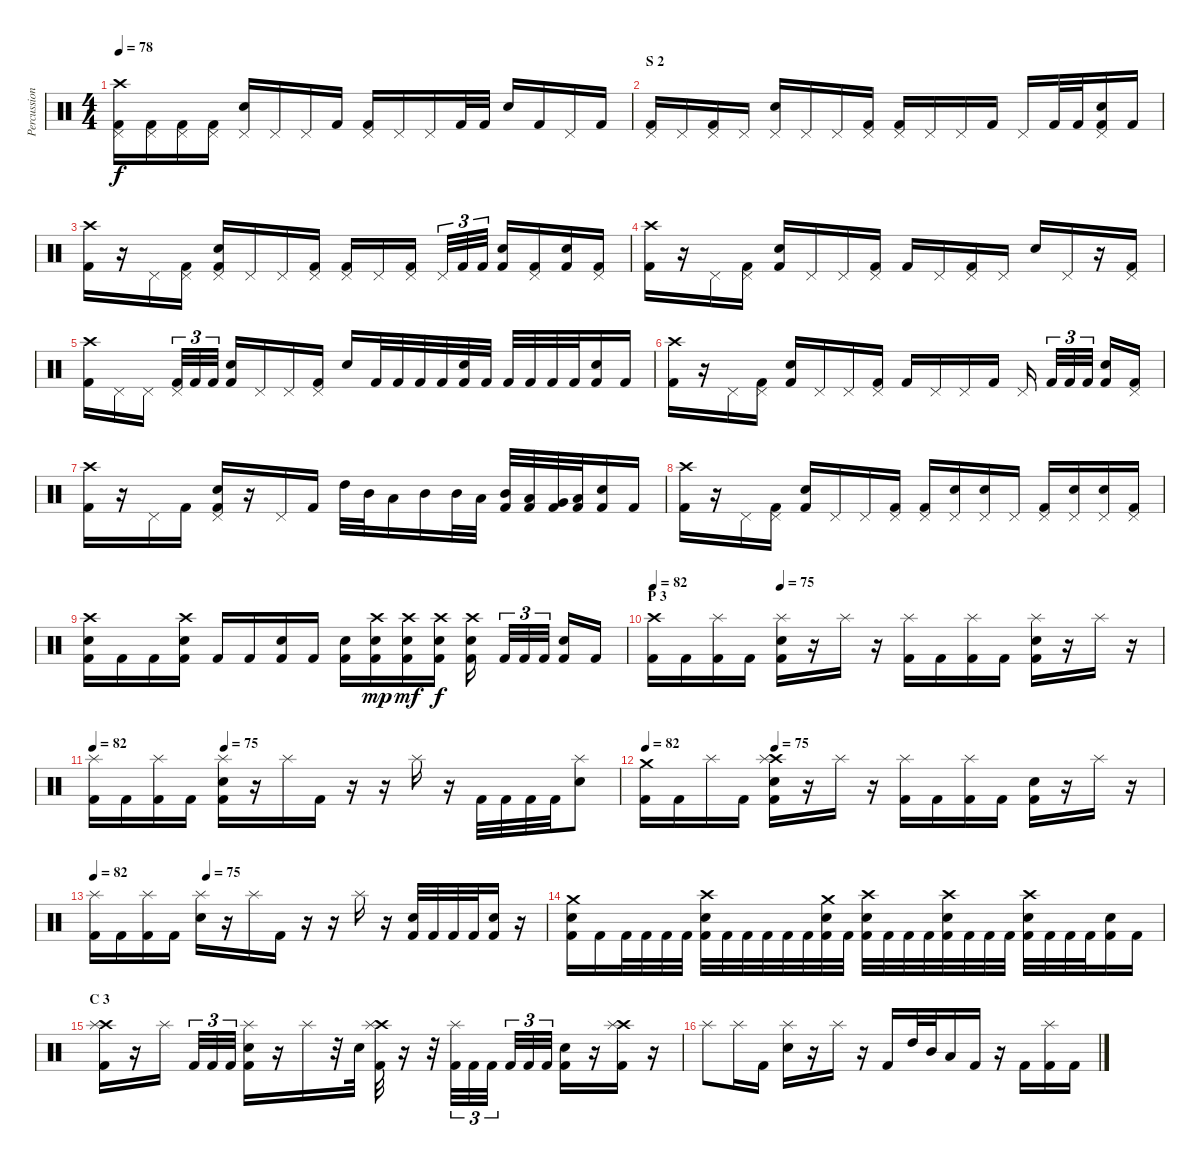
\track ("Percussion" "Percussion") {instrument percussion}
\staff {score}
\articulation defaults
\ts (4 4)
\tempo 78
\clef neutral
\ks c
("Crash high (hit)" "Pedal Hi-Hat (hit)" "Kick (hit) 2").16{dy f} ("Pedal Hi-Hat (hit)" "Kick (hit) 2").16 ("Pedal Hi-Hat (hit)" "Kick (hit) 2").16 ("Pedal Hi-Hat (hit)" "Kick (hit) 2").16 ("Pedal Hi-Hat (hit)" "Snare (hit) 2").16 "Pedal Hi-Hat (hit)".16 "Pedal Hi-Hat (hit)".16 "Kick (hit) 2".16 ("Pedal Hi-Hat (hit)" "Kick (hit) 2").16 "Pedal Hi-Hat (hit)".16 "Pedal Hi-Hat (hit)".16 "Kick (hit) 2".32 "Kick (hit) 2".32 "Snare (hit) 2".16 "Kick (hit) 2".16 "Pedal Hi-Hat (hit)".16 "Kick (hit) 2".16 |
\section ("" "S 2")
("Pedal Hi-Hat (hit)" "Kick (hit) 2").16 "Pedal Hi-Hat (hit)".16 ("Pedal Hi-Hat (hit)" "Kick (hit) 2").16 "Pedal Hi-Hat (hit)".16 ("Pedal Hi-Hat (hit)" "Snare (hit) 2").16 "Pedal Hi-Hat (hit)".16 "Pedal Hi-Hat (hit)".16 ("Pedal Hi-Hat (hit)" "Kick (hit) 2").16 ("Pedal Hi-Hat (hit)" "Kick (hit) 2").16 "Pedal Hi-Hat (hit)".16 "Pedal Hi-Hat (hit)".16 "Kick (hit) 2".16 "Pedal Hi-Hat (hit)".16 "Kick (hit) 2".32 "Kick (hit) 2".32 ("Pedal Hi-Hat (hit)" "Snare (hit) 2" "Kick (hit) 2").16 "Kick (hit) 2".16 |
("Crash high (hit)" "Kick (hit) 2").16 r.16 "Pedal Hi-Hat (hit)".16 ("Pedal Hi-Hat (hit)" "Kick (hit) 2").16 ("Pedal Hi-Hat (hit)" "Snare (hit) 2" "Kick (hit) 2").16 "Pedal Hi-Hat (hit)".16 "Pedal Hi-Hat (hit)".16 ("Pedal Hi-Hat (hit)" "Kick (hit) 2").16 ("Pedal Hi-Hat (hit)" "Kick (hit) 2").16 "Pedal Hi-Hat (hit)".16 ("Pedal Hi-Hat (hit)" "Kick (hit) 2").16 "Pedal Hi-Hat (hit)".32{tu (3 2)} "Kick (hit) 2".32{tu (3 2)} "Kick (hit) 2".32{tu (3 2)} ("Snare (hit) 2" "Kick (hit) 2").16 ("Pedal Hi-Hat (hit)" "Kick (hit) 2").16 ("Snare (hit) 2" "Kick (hit) 2").16 ("Pedal Hi-Hat (hit)" "Kick (hit) 2").16 |
("Crash high (hit)" "Kick (hit) 2").16 r.16 "Pedal Hi-Hat (hit)".16 ("Pedal Hi-Hat (hit)" "Kick (hit) 2").16 ("Snare (hit) 2" "Kick (hit) 2").16 "Pedal Hi-Hat (hit)".16 "Pedal Hi-Hat (hit)".16 ("Pedal Hi-Hat (hit)" "Kick (hit) 2").16 "Kick (hit) 2".16 "Pedal Hi-Hat (hit)".16 ("Pedal Hi-Hat (hit)" "Kick (hit) 2").16 "Pedal Hi-Hat (hit)".16 "Snare (hit) 2".16 "Pedal Hi-Hat (hit)".16 r.16 ("Pedal Hi-Hat (hit)" "Kick (hit) 2").16 |
("Crash high (hit)" "Kick (hit) 2").16 "Pedal Hi-Hat (hit)".16 "Pedal Hi-Hat (hit)".16 ("Pedal Hi-Hat (hit)" "Kick (hit) 2").32{tu (3 2)} "Kick (hit) 2".32{tu (3 2)} "Kick (hit) 2".32{tu (3 2)} ("Snare (hit) 2" "Kick (hit) 2").16 "Pedal Hi-Hat (hit)".16 "Pedal Hi-Hat (hit)".16 ("Pedal Hi-Hat (hit)" "Kick (hit) 2").16 "Snare (hit) 2".16 "Kick (hit) 2".32 "Kick (hit) 2".32 "Kick (hit) 2".32 "Kick (hit) 2".32 ("Snare (hit) 2" "Kick (hit) 2").32 "Kick (hit) 2".32 "Kick (hit) 2".32 "Kick (hit) 2".32 "Kick (hit) 2".32 "Kick (hit) 2".32 ("Snare (hit) 2" "Kick (hit) 2").16 "Kick (hit) 2".16 |
("Crash high (hit)" "Kick (hit) 2").16 r.16 "Pedal Hi-Hat (hit)".16 ("Pedal Hi-Hat (hit)" "Kick (hit) 2").16 ("Snare (hit) 2" "Kick (hit) 2").16 "Pedal Hi-Hat (hit)".16 "Pedal Hi-Hat (hit)".16 ("Pedal Hi-Hat (hit)" "Kick (hit) 2").16 "Kick (hit) 2".16 "Pedal Hi-Hat (hit)".16 "Pedal Hi-Hat (hit)".16 "Kick (hit) 2".16 "Pedal Hi-Hat (hit)".16 "Kick (hit) 2".32{tu (3 2)} "Kick (hit) 2".32{tu (3 2)} "Kick (hit) 2".32{tu (3 2)} ("Snare (hit) 2" "Kick (hit) 2").16 ("Pedal Hi-Hat (hit)" "Kick (hit) 2").16 |
("Crash high (hit)" "Kick (hit) 2").16 r.16 "Pedal Hi-Hat (hit)".16 "Kick (hit) 2".16 ("Pedal Hi-Hat (hit)" "Snare (hit) 2" "Kick (hit) 2").16 r.16 "Pedal Hi-Hat (hit)".16 "Kick (hit) 2".16 "High Tom (hit)".32 "Mid Tom (hit)".32 "Low Tom (hit)".16 "Mid Tom (hit)".16 "Mid Tom (hit)".32 "Low Tom (hit)".32 ("Mid Tom (hit)" "Kick (hit) 2").32 ("Low Tom (hit)" "Kick (hit) 2").32 ("Very Low Tom (hit)" "Kick (hit) 2").32 ("Low Tom (hit)" "Kick (hit) 2").32 ("Snare (hit) 2" "Kick (hit) 2").16 "Kick (hit) 2".16 |
("Crash high (hit)" "Kick (hit) 2").16 r.16 "Pedal Hi-Hat (hit)".16 ("Pedal Hi-Hat (hit)" "Kick (hit) 2").16 ("Snare (hit) 2" "Kick (hit) 2").16 "Pedal Hi-Hat (hit)".16 "Pedal Hi-Hat (hit)".16 ("Pedal Hi-Hat (hit)" "Kick (hit) 2").16 ("Pedal Hi-Hat (hit)" "Kick (hit) 2").16 ("Pedal Hi-Hat (hit)" "Snare (hit) 2").16 ("Pedal Hi-Hat (hit)" "Snare (hit) 2").16 "Pedal Hi-Hat (hit)".16 ("Pedal Hi-Hat (hit)" "Kick (hit) 2").16 ("Pedal Hi-Hat (hit)" "Snare (hit) 2").16 ("Pedal Hi-Hat (hit)" "Snare (hit) 2").16 ("Pedal Hi-Hat (hit)" "Kick (hit) 2").16 |
("Crash high (hit)" "Snare (hit) 2" "Kick (hit) 2").16 "Kick (hit) 2".16 "Kick (hit) 2".16 ("Crash high (hit)" "Snare (hit) 2" "Kick (hit) 2").16 "Kick (hit) 2".16 "Kick (hit) 2".16 ("Snare (hit) 2" "Kick (hit) 2").16 "Kick (hit) 2".16 ("Snare (hit) 2" "Kick (hit) 2").16 ("Crash high (hit)" "Snare (hit) 2" "Kick (hit) 2").16{dy mp} ("Crash high (hit)" "Snare (hit) 2" "Kick (hit) 2").16{dy mf} ("Crash high (hit)" "Snare (hit) 2" "Kick (hit) 2").16{dy f} ("Crash high (hit)" "Snare (hit) 2" "Kick (hit) 2").16 "Kick (hit) 2".32{tu (3 2)} "Kick (hit) 2".32{tu (3 2)} "Kick (hit) 2".32{tu (3 2)} ("Snare (hit) 2" "Kick (hit) 2").16 "Kick (hit) 2".16 |
\section ("" "P 3")
\tempo 82
\tempo (75 0.25)
("Crash high (hit)" "Kick (hit) 2").16 "Kick (hit) 2".16 ("Splash (hit)" "Kick (hit) 2").16 "Kick (hit) 2".16 ("Splash (hit)" "Snare (hit) 2" "Kick (hit) 2").16 r.16 "Splash (hit)".16 r.16 ("Splash (hit)" "Kick (hit) 2").16 "Kick (hit) 2".16 ("Splash (hit)" "Kick (hit) 2").16 "Kick (hit) 2".16 ("Splash (hit)" "Snare (hit) 2" "Kick (hit) 2").16 r.16 "Splash (hit)".16 r.16 |
\tempo 82
\tempo (75 0.25)
("Splash (hit)" "Kick (hit) 2").16 "Kick (hit) 2".16 ("Splash (hit)" "Kick (hit) 2").16 "Kick (hit) 2".16 ("Splash (hit)" "Snare (hit) 2" "Kick (hit) 2").16 r.16 "Splash (hit)".16 "Kick (hit) 2".16 r.16 r.16 "Splash (hit)".16 r.16 "Kick (hit) 2".32 "Kick (hit) 2".32 "Kick (hit) 2".32 "Kick (hit) 2".32 ("Splash (hit)" "Snare (hit) 2").8 |
\tempo 82
\tempo (75 0.25)
("Crash medium (hit)" "Kick (hit) 2").16 "Kick (hit) 2".16 "Splash (hit)".16 "Kick (hit) 2".16 ("Crash high (hit)" "Splash (hit)" "Snare (hit) 2" "Kick (hit) 2").16 r.16 "Splash (hit)".16 r.16 ("Splash (hit)" "Kick (hit) 2").16 "Kick (hit) 2".16 ("Splash (hit)" "Kick (hit) 2").16 "Kick (hit) 2".16 ("Snare (hit) 2" "Kick (hit) 2").16 r.16 "Splash (hit)".16 r.16 |
\tempo 82
\tempo (75 0.25)
("Splash (hit)" "Kick (hit) 2").16 "Kick (hit) 2".16 ("Splash (hit)" "Kick (hit) 2").16 "Kick (hit) 2".16 ("Splash (hit)" "Snare (hit) 2").16 r.16 "Splash (hit)".16 "Kick (hit) 2".16 r.16 r.16 "Splash (hit)".16 r.16 ("Snare (hit) 2" "Kick (hit) 2").32 "Kick (hit) 2".32 "Kick (hit) 2".32 "Kick (hit) 2".32 ("Snare (hit) 2" "Kick (hit) 2").16 r.16 |
("Crash medium (hit)" "Snare (hit) 2" "Kick (hit) 2").16 "Kick (hit) 2".16 "Kick (hit) 2".32 "Kick (hit) 2".32 "Kick (hit) 2".32 "Kick (hit) 2".32 ("Crash high (hit)" "Snare (hit) 2" "Kick (hit) 2").32 "Kick (hit) 2".32 "Kick (hit) 2".32 "Kick (hit) 2".32 "Kick (hit) 2".32 "Kick (hit) 2".32 ("Crash medium (hit)" "Snare (hit) 2" "Kick (hit) 2").32 "Kick (hit) 2".32 ("Crash high (hit)" "Snare (hit) 2" "Kick (hit) 2").32 "Kick (hit) 2".32 "Kick (hit) 2".32 "Kick (hit) 2".32 ("Crash high (hit)" "Snare (hit) 2" "Kick (hit) 2").32 "Kick (hit) 2".32 "Kick (hit) 2".32 "Kick (hit) 2".32 ("Crash high (hit)" "Snare (hit) 2" "Kick (hit) 2").32 "Kick (hit) 2".32 "Kick (hit) 2".32 "Kick (hit) 2".32 ("Snare (hit) 2" "Kick (hit) 2").16 "Kick (hit) 2".16 |
\section ("" "C 3")
("Crash high (hit)" "Splash (hit)" "Kick (hit) 2").16 r.16 "Splash (hit)".16 "Kick (hit) 2".32{tu (3 2)} "Kick (hit) 2".32{tu (3 2)} "Kick (hit) 2".32{tu (3 2)} ("Splash (hit)" "Snare (hit) 2" "Kick (hit) 2").16 r.16 "Splash (hit)".16 r.32 "Snare (hit) 2".32 ("Crash high (hit)" "Splash (hit)" "Kick (hit) 2").32 r.16 r.32 ("Splash (hit)" "Kick (hit) 2").32{tu (3 2)} "Kick (hit) 2".32{tu (3 2)} "Kick (hit) 2".32{tu (3 2)} "Kick (hit) 2".32{tu (3 2)} "Kick (hit) 2".32{tu (3 2)} "Kick (hit) 2".32{tu (3 2)} ("Snare (hit) 2" "Kick (hit) 2").16 r.16 ("Crash high (hit)" "Splash (hit)" "Kick (hit) 2").16 r.16 |
"Splash (hit)".8 "Splash (hit)".16 "Kick (hit) 2".16 ("Splash (hit)" "Snare (hit) 2").16 r.16 "Splash (hit)".16 r.16 "Kick (hit) 2".16 "High Tom (hit)".32 "Mid Tom (hit)".32 "Low Tom (hit)".16 "Kick (hit) 2".16 r.16 "Kick (hit) 2".16 ("Splash (hit)" "Kick (hit) 2").16 "Kick (hit) 2".16
